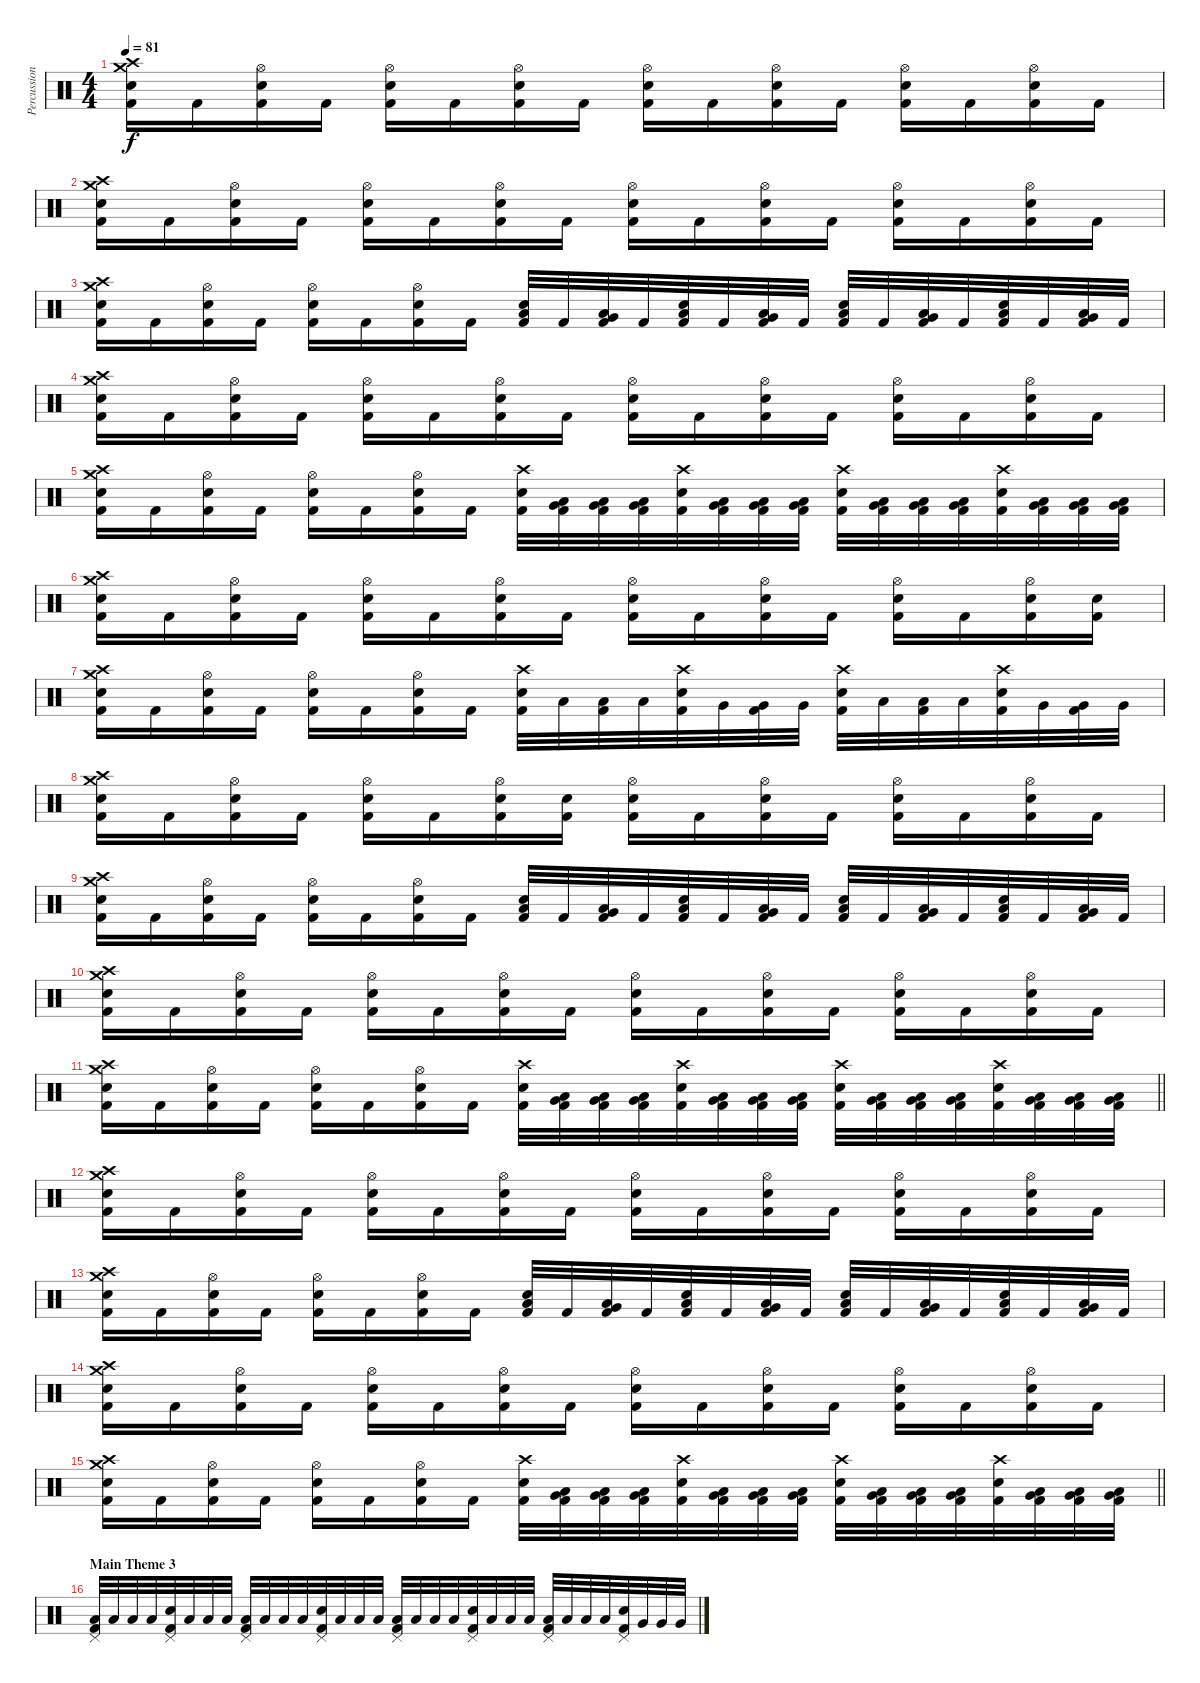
\track ("Percussion" "Percussion") {instrument percussion}
\staff {score}
\articulation defaults
\ts (4 4)
\tempo 81
\clef neutral
\ks c
("Crash high (hit)" "Crash medium (hit)" "Electric Snare (hit)" "Kick (hit) 2").16{dy f} "Kick (hit) 2".16 ("Hi-Hat (open)" "Electric Snare (hit)" "Kick (hit) 2").16 "Kick (hit) 2".16 ("Hi-Hat (open)" "Electric Snare (hit)" "Kick (hit) 2").16 "Kick (hit) 2".16 ("Hi-Hat (open)" "Electric Snare (hit)" "Kick (hit) 2").16 "Kick (hit) 2".16 ("Hi-Hat (open)" "Electric Snare (hit)" "Kick (hit) 2").16 "Kick (hit) 2".16 ("Hi-Hat (open)" "Electric Snare (hit)" "Kick (hit) 2").16 "Kick (hit) 2".16 ("Hi-Hat (open)" "Electric Snare (hit)" "Kick (hit) 2").16 "Kick (hit) 2".16 ("Hi-Hat (open)" "Electric Snare (hit)" "Kick (hit) 2").16 "Kick (hit) 2".16 |
("Crash high (hit)" "Crash medium (hit)" "Electric Snare (hit)" "Kick (hit) 2").16 "Kick (hit) 2".16 ("Hi-Hat (open)" "Electric Snare (hit)" "Kick (hit) 2").16 "Kick (hit) 2".16 ("Hi-Hat (open)" "Electric Snare (hit)" "Kick (hit) 2").16 "Kick (hit) 2".16 ("Hi-Hat (open)" "Electric Snare (hit)" "Kick (hit) 2").16 "Kick (hit) 2".16 ("Hi-Hat (open)" "Electric Snare (hit)" "Kick (hit) 2").16 "Kick (hit) 2".16 ("Hi-Hat (open)" "Electric Snare (hit)" "Kick (hit) 2").16 "Kick (hit) 2".16 ("Hi-Hat (open)" "Electric Snare (hit)" "Kick (hit) 2").16 "Kick (hit) 2".16 ("Hi-Hat (open)" "Electric Snare (hit)" "Kick (hit) 2").16 "Kick (hit) 2".16 |
("Crash high (hit)" "Crash medium (hit)" "Electric Snare (hit)" "Kick (hit) 2").16 "Kick (hit) 2".16 ("Hi-Hat (open)" "Electric Snare (hit)" "Kick (hit) 2").16 "Kick (hit) 2".16 ("Hi-Hat (open)" "Electric Snare (hit)" "Kick (hit) 2").16 "Kick (hit) 2".16 ("Hi-Hat (open)" "Electric Snare (hit)" "Kick (hit) 2").16 "Kick (hit) 2".16 ("Low Floor Tom (hit)" "Electric Snare (hit)" "Kick (hit) 2").32 "Kick (hit) 2".32 ("Very Low Tom (hit)" "Low Floor Tom (hit)" "Kick (hit) 2").32 "Kick (hit) 2".32 ("Low Floor Tom (hit)" "Electric Snare (hit)" "Kick (hit) 2").32 "Kick (hit) 2".32 ("Very Low Tom (hit)" "Low Floor Tom (hit)" "Kick (hit) 2").32 "Kick (hit) 2".32 ("Low Floor Tom (hit)" "Electric Snare (hit)" "Kick (hit) 2").32 "Kick (hit) 2".32 ("Very Low Tom (hit)" "Low Floor Tom (hit)" "Kick (hit) 2").32 "Kick (hit) 2".32 ("Low Floor Tom (hit)" "Electric Snare (hit)" "Kick (hit) 2").32 "Kick (hit) 2".32 ("Very Low Tom (hit)" "Low Floor Tom (hit)" "Kick (hit) 2").32 "Kick (hit) 2".32 |
("Crash high (hit)" "Crash medium (hit)" "Electric Snare (hit)" "Kick (hit) 2").16 "Kick (hit) 2".16 ("Hi-Hat (open)" "Electric Snare (hit)" "Kick (hit) 2").16 "Kick (hit) 2".16 ("Hi-Hat (open)" "Electric Snare (hit)" "Kick (hit) 2").16 "Kick (hit) 2".16 ("Hi-Hat (open)" "Electric Snare (hit)" "Kick (hit) 2").16 "Kick (hit) 2".16 ("Hi-Hat (open)" "Electric Snare (hit)" "Kick (hit) 2").16 "Kick (hit) 2".16 ("Hi-Hat (open)" "Electric Snare (hit)" "Kick (hit) 2").16 "Kick (hit) 2".16 ("Hi-Hat (open)" "Electric Snare (hit)" "Kick (hit) 2").16 "Kick (hit) 2".16 ("Hi-Hat (open)" "Electric Snare (hit)" "Kick (hit) 2").16 "Kick (hit) 2".16 |
("Crash high (hit)" "Crash medium (hit)" "Electric Snare (hit)" "Kick (hit) 2").16 "Kick (hit) 2".16 ("Hi-Hat (open)" "Electric Snare (hit)" "Kick (hit) 2").16 "Kick (hit) 2".16 ("Hi-Hat (open)" "Electric Snare (hit)" "Kick (hit) 2").16 "Kick (hit) 2".16 ("Hi-Hat (open)" "Electric Snare (hit)" "Kick (hit) 2").16 "Kick (hit) 2".16 ("Crash high (hit)" "Electric Snare (hit)" "Kick (hit) 2").32 ("Very Low Tom (hit)" "Low Floor Tom (hit)" "Kick (hit) 2").32 ("Very Low Tom (hit)" "Low Floor Tom (hit)" "Kick (hit) 2").32 ("Very Low Tom (hit)" "Low Floor Tom (hit)" "Kick (hit) 2").32 ("Crash high (hit)" "Electric Snare (hit)" "Kick (hit) 2").32 ("Very Low Tom (hit)" "Low Floor Tom (hit)" "Kick (hit) 2").32 ("Very Low Tom (hit)" "Low Floor Tom (hit)" "Kick (hit) 2").32 ("Low Tom (hit)" "Very Low Tom (hit)" "Kick (hit) 2").32 ("Crash high (hit)" "Electric Snare (hit)" "Kick (hit) 2").32 ("Very Low Tom (hit)" "Low Floor Tom (hit)" "Kick (hit) 2").32 ("Very Low Tom (hit)" "Low Floor Tom (hit)" "Kick (hit) 2").32 ("Low Tom (hit)" "Very Low Tom (hit)" "Kick (hit) 2").32 ("Crash high (hit)" "Electric Snare (hit)" "Kick (hit) 2").32 ("Very Low Tom (hit)" "Low Floor Tom (hit)" "Kick (hit) 2").32 ("Very Low Tom (hit)" "Low Floor Tom (hit)" "Kick (hit) 2").32 ("Very Low Tom (hit)" "Low Floor Tom (hit)" "Kick (hit) 2").32 |
("Crash high (hit)" "Crash medium (hit)" "Electric Snare (hit)" "Kick (hit) 2").16 "Kick (hit) 2".16 ("Hi-Hat (open)" "Electric Snare (hit)" "Kick (hit) 2").16 "Kick (hit) 2".16 ("Hi-Hat (open)" "Electric Snare (hit)" "Kick (hit) 2").16 "Kick (hit) 2".16 ("Hi-Hat (open)" "Electric Snare (hit)" "Kick (hit) 2").16 "Kick (hit) 2".16 ("Hi-Hat (open)" "Electric Snare (hit)" "Kick (hit) 2").16 "Kick (hit) 2".16 ("Hi-Hat (open)" "Electric Snare (hit)" "Kick (hit) 2").16 "Kick (hit) 2".16 ("Hi-Hat (open)" "Electric Snare (hit)" "Kick (hit) 2").16 "Kick (hit) 2".16 ("Hi-Hat (open)" "Electric Snare (hit)" "Kick (hit) 2").16 ("Electric Snare (hit)" "Kick (hit) 2").16 |
("Crash high (hit)" "Crash medium (hit)" "Electric Snare (hit)" "Kick (hit) 2").16 "Kick (hit) 2".16 ("Hi-Hat (open)" "Electric Snare (hit)" "Kick (hit) 2").16 "Kick (hit) 2".16 ("Hi-Hat (open)" "Electric Snare (hit)" "Kick (hit) 2").16 "Kick (hit) 2".16 ("Hi-Hat (open)" "Electric Snare (hit)" "Kick (hit) 2").16 "Kick (hit) 2".16 ("Crash high (hit)" "Electric Snare (hit)" "Kick (hit) 2").32 "Low Tom (hit)".32 ("Low Tom (hit)" "Kick (hit) 2").32 "Low Tom (hit)".32 ("Crash high (hit)" "Electric Snare (hit)" "Kick (hit) 2").32 "Very Low Tom (hit)".32 ("Very Low Tom (hit)" "Kick (hit) 2").32 "Very Low Tom (hit)".32 ("Crash high (hit)" "Electric Snare (hit)" "Kick (hit) 2").32 "Low Floor Tom (hit)".32 ("Low Floor Tom (hit)" "Kick (hit) 2").32 "Low Floor Tom (hit)".32 ("Crash high (hit)" "Electric Snare (hit)" "Kick (hit) 2").32 "Very Low Tom (hit)".32 ("Very Low Tom (hit)" "Kick (hit) 2").32 "Very Low Tom (hit)".32 |
("Crash high (hit)" "Crash medium (hit)" "Electric Snare (hit)" "Kick (hit) 2").16 "Kick (hit) 2".16 ("Hi-Hat (open)" "Electric Snare (hit)" "Kick (hit) 2").16 "Kick (hit) 2".16 ("Hi-Hat (open)" "Electric Snare (hit)" "Kick (hit) 2").16 "Kick (hit) 2".16 ("Hi-Hat (open)" "Electric Snare (hit)" "Kick (hit) 2").16 ("Electric Snare (hit)" "Kick (hit) 2").16 ("Hi-Hat (open)" "Electric Snare (hit)" "Kick (hit) 2").16 "Kick (hit) 2".16 ("Hi-Hat (open)" "Electric Snare (hit)" "Kick (hit) 2").16 "Kick (hit) 2".16 ("Hi-Hat (open)" "Electric Snare (hit)" "Kick (hit) 2").16 "Kick (hit) 2".16 ("Hi-Hat (open)" "Electric Snare (hit)" "Kick (hit) 2").16 "Kick (hit) 2".16 |
("Crash high (hit)" "Crash medium (hit)" "Electric Snare (hit)" "Kick (hit) 2").16 "Kick (hit) 2".16 ("Hi-Hat (open)" "Electric Snare (hit)" "Kick (hit) 2").16 "Kick (hit) 2".16 ("Hi-Hat (open)" "Electric Snare (hit)" "Kick (hit) 2").16 "Kick (hit) 2".16 ("Hi-Hat (open)" "Electric Snare (hit)" "Kick (hit) 2").16 "Kick (hit) 2".16 ("Low Floor Tom (hit)" "Electric Snare (hit)" "Kick (hit) 2").32 "Kick (hit) 2".32 ("Very Low Tom (hit)" "Low Floor Tom (hit)" "Kick (hit) 2").32 "Kick (hit) 2".32 ("Low Floor Tom (hit)" "Electric Snare (hit)" "Kick (hit) 2").32 "Kick (hit) 2".32 ("Very Low Tom (hit)" "Low Floor Tom (hit)" "Kick (hit) 2").32 "Kick (hit) 2".32 ("Low Floor Tom (hit)" "Electric Snare (hit)" "Kick (hit) 2").32 "Kick (hit) 2".32 ("Very Low Tom (hit)" "Low Floor Tom (hit)" "Kick (hit) 2").32 "Kick (hit) 2".32 ("Low Floor Tom (hit)" "Electric Snare (hit)" "Kick (hit) 2").32 "Kick (hit) 2".32 ("Very Low Tom (hit)" "Low Floor Tom (hit)" "Kick (hit) 2").32 "Kick (hit) 2".32 |
("Crash high (hit)" "Crash medium (hit)" "Electric Snare (hit)" "Kick (hit) 2").16 "Kick (hit) 2".16 ("Hi-Hat (open)" "Electric Snare (hit)" "Kick (hit) 2").16 "Kick (hit) 2".16 ("Hi-Hat (open)" "Electric Snare (hit)" "Kick (hit) 2").16 "Kick (hit) 2".16 ("Hi-Hat (open)" "Electric Snare (hit)" "Kick (hit) 2").16 "Kick (hit) 2".16 ("Hi-Hat (open)" "Electric Snare (hit)" "Kick (hit) 2").16 "Kick (hit) 2".16 ("Hi-Hat (open)" "Electric Snare (hit)" "Kick (hit) 2").16 "Kick (hit) 2".16 ("Hi-Hat (open)" "Electric Snare (hit)" "Kick (hit) 2").16 "Kick (hit) 2".16 ("Hi-Hat (open)" "Electric Snare (hit)" "Kick (hit) 2").16 "Kick (hit) 2".16 |
\barLineRight lightlight
("Crash high (hit)" "Crash medium (hit)" "Electric Snare (hit)" "Kick (hit) 2").16 "Kick (hit) 2".16 ("Hi-Hat (open)" "Electric Snare (hit)" "Kick (hit) 2").16 "Kick (hit) 2".16 ("Hi-Hat (open)" "Electric Snare (hit)" "Kick (hit) 2").16 "Kick (hit) 2".16 ("Hi-Hat (open)" "Electric Snare (hit)" "Kick (hit) 2").16 "Kick (hit) 2".16 ("Crash high (hit)" "Electric Snare (hit)" "Kick (hit) 2").32 ("Very Low Tom (hit)" "Low Floor Tom (hit)" "Kick (hit) 2").32 ("Very Low Tom (hit)" "Low Floor Tom (hit)" "Kick (hit) 2").32 ("Very Low Tom (hit)" "Low Floor Tom (hit)" "Kick (hit) 2").32 ("Crash high (hit)" "Electric Snare (hit)" "Kick (hit) 2").32 ("Very Low Tom (hit)" "Low Floor Tom (hit)" "Kick (hit) 2").32 ("Very Low Tom (hit)" "Low Floor Tom (hit)" "Kick (hit) 2").32 ("Low Tom (hit)" "Very Low Tom (hit)" "Kick (hit) 2").32 ("Crash high (hit)" "Electric Snare (hit)" "Kick (hit) 2").32 ("Very Low Tom (hit)" "Low Floor Tom (hit)" "Kick (hit) 2").32 ("Very Low Tom (hit)" "Low Floor Tom (hit)" "Kick (hit) 2").32 ("Low Tom (hit)" "Very Low Tom (hit)" "Kick (hit) 2").32 ("Crash high (hit)" "Electric Snare (hit)" "Kick (hit) 2").32 ("Very Low Tom (hit)" "Low Floor Tom (hit)" "Kick (hit) 2").32 ("Very Low Tom (hit)" "Low Floor Tom (hit)" "Kick (hit) 2").32 ("Very Low Tom (hit)" "Low Floor Tom (hit)" "Kick (hit) 2").32 |
("Crash high (hit)" "Crash medium (hit)" "Electric Snare (hit)" "Kick (hit) 2").16 "Kick (hit) 2".16 ("Hi-Hat (open)" "Electric Snare (hit)" "Kick (hit) 2").16 "Kick (hit) 2".16 ("Hi-Hat (open)" "Electric Snare (hit)" "Kick (hit) 2").16 "Kick (hit) 2".16 ("Hi-Hat (open)" "Electric Snare (hit)" "Kick (hit) 2").16 "Kick (hit) 2".16 ("Hi-Hat (open)" "Electric Snare (hit)" "Kick (hit) 2").16 "Kick (hit) 2".16 ("Hi-Hat (open)" "Electric Snare (hit)" "Kick (hit) 2").16 "Kick (hit) 2".16 ("Hi-Hat (open)" "Electric Snare (hit)" "Kick (hit) 2").16 "Kick (hit) 2".16 ("Hi-Hat (open)" "Electric Snare (hit)" "Kick (hit) 2").16 "Kick (hit) 2".16 |
("Crash high (hit)" "Crash medium (hit)" "Electric Snare (hit)" "Kick (hit) 2").16 "Kick (hit) 2".16 ("Hi-Hat (open)" "Electric Snare (hit)" "Kick (hit) 2").16 "Kick (hit) 2".16 ("Hi-Hat (open)" "Electric Snare (hit)" "Kick (hit) 2").16 "Kick (hit) 2".16 ("Hi-Hat (open)" "Electric Snare (hit)" "Kick (hit) 2").16 "Kick (hit) 2".16 ("Low Floor Tom (hit)" "Electric Snare (hit)" "Kick (hit) 2").32 "Kick (hit) 2".32 ("Very Low Tom (hit)" "Low Floor Tom (hit)" "Kick (hit) 2").32 "Kick (hit) 2".32 ("Low Floor Tom (hit)" "Electric Snare (hit)" "Kick (hit) 2").32 "Kick (hit) 2".32 ("Very Low Tom (hit)" "Low Floor Tom (hit)" "Kick (hit) 2").32 "Kick (hit) 2".32 ("Low Floor Tom (hit)" "Electric Snare (hit)" "Kick (hit) 2").32 "Kick (hit) 2".32 ("Very Low Tom (hit)" "Low Floor Tom (hit)" "Kick (hit) 2").32 "Kick (hit) 2".32 ("Low Floor Tom (hit)" "Electric Snare (hit)" "Kick (hit) 2").32 "Kick (hit) 2".32 ("Very Low Tom (hit)" "Low Floor Tom (hit)" "Kick (hit) 2").32 "Kick (hit) 2".32 |
("Crash high (hit)" "Crash medium (hit)" "Electric Snare (hit)" "Kick (hit) 2").16 "Kick (hit) 2".16 ("Hi-Hat (open)" "Electric Snare (hit)" "Kick (hit) 2").16 "Kick (hit) 2".16 ("Hi-Hat (open)" "Electric Snare (hit)" "Kick (hit) 2").16 "Kick (hit) 2".16 ("Hi-Hat (open)" "Electric Snare (hit)" "Kick (hit) 2").16 "Kick (hit) 2".16 ("Hi-Hat (open)" "Electric Snare (hit)" "Kick (hit) 2").16 "Kick (hit) 2".16 ("Hi-Hat (open)" "Electric Snare (hit)" "Kick (hit) 2").16 "Kick (hit) 2".16 ("Hi-Hat (open)" "Electric Snare (hit)" "Kick (hit) 2").16 "Kick (hit) 2".16 ("Hi-Hat (open)" "Electric Snare (hit)" "Kick (hit) 2").16 "Kick (hit) 2".16 |
\barLineRight lightlight
("Crash high (hit)" "Crash medium (hit)" "Electric Snare (hit)" "Kick (hit) 2").16 "Kick (hit) 2".16 ("Hi-Hat (open)" "Electric Snare (hit)" "Kick (hit) 2").16 "Kick (hit) 2".16 ("Hi-Hat (open)" "Electric Snare (hit)" "Kick (hit) 2").16 "Kick (hit) 2".16 ("Hi-Hat (open)" "Electric Snare (hit)" "Kick (hit) 2").16 "Kick (hit) 2".16 ("Crash high (hit)" "Electric Snare (hit)" "Kick (hit) 2").32 ("Very Low Tom (hit)" "Low Floor Tom (hit)" "Kick (hit) 2").32 ("Very Low Tom (hit)" "Low Floor Tom (hit)" "Kick (hit) 2").32 ("Very Low Tom (hit)" "Low Floor Tom (hit)" "Kick (hit) 2").32 ("Crash high (hit)" "Electric Snare (hit)" "Kick (hit) 2").32 ("Very Low Tom (hit)" "Low Floor Tom (hit)" "Kick (hit) 2").32 ("Very Low Tom (hit)" "Low Floor Tom (hit)" "Kick (hit) 2").32 ("Low Tom (hit)" "Very Low Tom (hit)" "Kick (hit) 2").32 ("Crash high (hit)" "Electric Snare (hit)" "Kick (hit) 2").32 ("Very Low Tom (hit)" "Low Floor Tom (hit)" "Kick (hit) 2").32 ("Very Low Tom (hit)" "Low Floor Tom (hit)" "Kick (hit) 2").32 ("Low Tom (hit)" "Very Low Tom (hit)" "Kick (hit) 2").32 ("Crash high (hit)" "Electric Snare (hit)" "Kick (hit) 2").32 ("Very Low Tom (hit)" "Low Floor Tom (hit)" "Kick (hit) 2").32 ("Very Low Tom (hit)" "Low Floor Tom (hit)" "Kick (hit) 2").32 ("Very Low Tom (hit)" "Low Floor Tom (hit)" "Kick (hit) 2").32 |
\section ("" "Main Theme 3")
("Pedal Hi-Hat (hit)" "Low Floor Tom (hit)" "Kick (hit) 2").32 "Low Floor Tom (hit)".32 "Low Floor Tom (hit)".32 "Low Floor Tom (hit)".32 ("Pedal Hi-Hat (hit)" "Electric Snare (hit)" "Kick (hit) 2").32 "Low Floor Tom (hit)".32 "Low Floor Tom (hit)".32 "Low Floor Tom (hit)".32 ("Pedal Hi-Hat (hit)" "Low Floor Tom (hit)" "Kick (hit) 2").32 "Low Floor Tom (hit)".32 "Low Floor Tom (hit)".32 "Low Floor Tom (hit)".32 ("Pedal Hi-Hat (hit)" "Electric Snare (hit)" "Kick (hit) 2").32 "Low Floor Tom (hit)".32 "Low Floor Tom (hit)".32 "Low Floor Tom (hit)".32 ("Pedal Hi-Hat (hit)" "Low Floor Tom (hit)" "Kick (hit) 2").32 "Low Floor Tom (hit)".32 "Low Floor Tom (hit)".32 "Low Floor Tom (hit)".32 ("Pedal Hi-Hat (hit)" "Electric Snare (hit)" "Kick (hit) 2").32 "Low Floor Tom (hit)".32 "Low Floor Tom (hit)".32 "Low Floor Tom (hit)".32 ("Pedal Hi-Hat (hit)" "Low Floor Tom (hit)" "Kick (hit) 2").32 "Low Floor Tom (hit)".32 "Low Floor Tom (hit)".32 "Low Floor Tom (hit)".32 ("Pedal Hi-Hat (hit)" "Electric Snare (hit)" "Kick (hit) 2").32 "Very Low Tom (hit)".32 "Very Low Tom (hit)".32 "Very Low Tom (hit)".32
